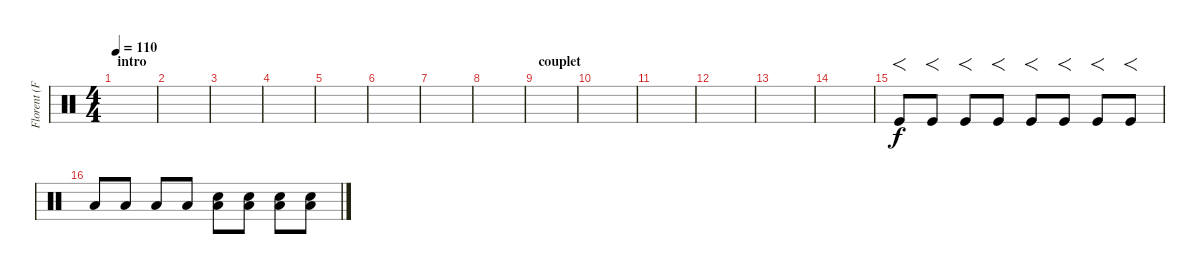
\track ("Florent (Fûts)" "Florent (F") {instrument percussion}
\staff {score}
\articulation defaults
\ts (4 4)
\section ("" "intro")
\tempo 110
\clef neutral
\ks c
|
|
|
|
|
|
|
|
\section ("" "couplet")
|
|
|
|
|
|
"Kick (hit)".8{f} "Kick (hit)".8{f} "Kick (hit)".8{f} "Kick (hit)".8{f} "Kick (hit)".8{f} "Kick (hit)".8{f} "Kick (hit)".8{f} "Kick (hit)".8{f} |
"Low Floor Tom (hit)".8 "Low Floor Tom (hit)".8 "Low Floor Tom (hit)".8 "Low Floor Tom (hit)".8 ("Low Floor Tom (hit)" "Snare (hit) 2").8 ("Low Floor Tom (hit)" "Snare (hit) 2").8 ("Low Floor Tom (hit)" "Snare (hit) 2").8 ("Low Floor Tom (hit)" "Snare (hit) 2").8
